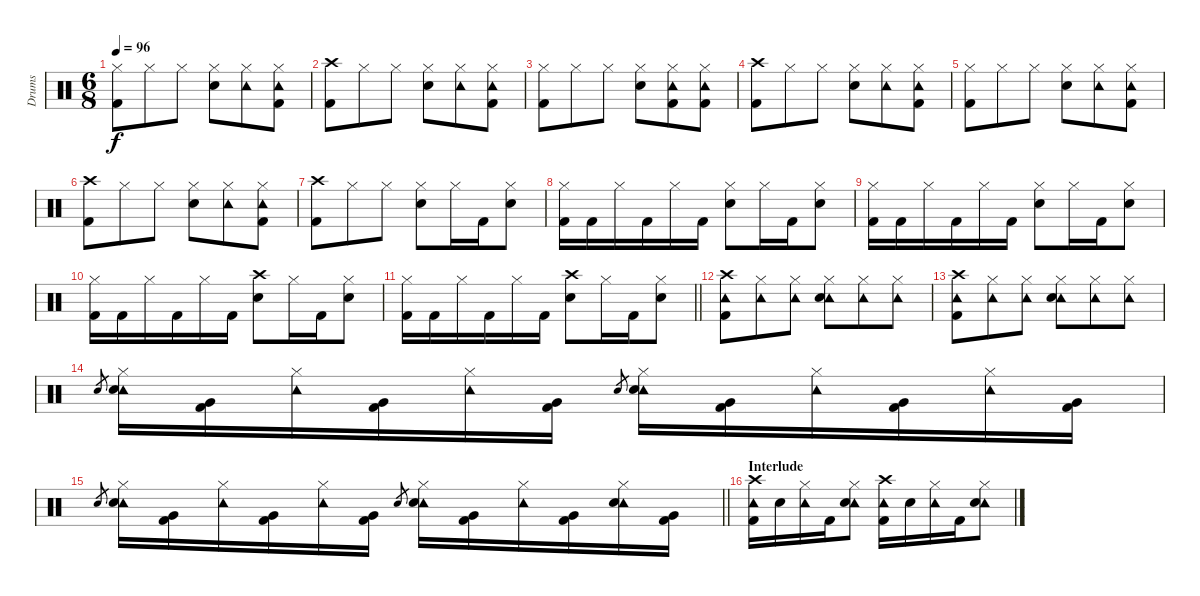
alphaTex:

\track ("Drums" "Drums") {instrument percussion}
\staff {score}
\articulation defaults
\ts (6 8)
\tempo 96
\clef neutral
\ks c
("Hi-Hat (closed)" "Kick (hit) 2").8{dy f} "Hi-Hat (closed)".8 "Hi-Hat (closed)".8 ("Hi-Hat (closed)" "Snare (hit) 2").8 ("Hi-Hat (closed)" "Tambourine (hit)").8 ("Hi-Hat (closed)" "Tambourine (hit)" "Kick (hit) 2").8 |
("Crash high (hit)" "Kick (hit) 2").8 "Hi-Hat (closed)".8 "Hi-Hat (closed)".8 ("Hi-Hat (closed)" "Snare (hit) 2").8 ("Hi-Hat (closed)" "Tambourine (hit)").8 ("Hi-Hat (closed)" "Tambourine (hit)" "Kick (hit) 2").8 |
("Hi-Hat (closed)" "Kick (hit) 2").8 "Hi-Hat (closed)".8 "Hi-Hat (closed)".8 ("Hi-Hat (closed)" "Snare (hit) 2").8 ("Hi-Hat (closed)" "Tambourine (hit)" "Kick (hit) 2").8 ("Hi-Hat (closed)" "Tambourine (hit)" "Kick (hit) 2").8 |
("Crash high (hit)" "Kick (hit) 2").8 "Hi-Hat (closed)".8 "Hi-Hat (closed)".8 ("Hi-Hat (closed)" "Snare (hit) 2").8 ("Hi-Hat (closed)" "Tambourine (hit)").8 ("Hi-Hat (closed)" "Tambourine (hit)" "Kick (hit) 2").8 |
("Hi-Hat (closed)" "Kick (hit) 2").8 "Hi-Hat (closed)".8 "Hi-Hat (closed)".8 ("Hi-Hat (closed)" "Snare (hit) 2").8 ("Hi-Hat (closed)" "Tambourine (hit)").8 ("Hi-Hat (closed)" "Tambourine (hit)" "Kick (hit) 2").8 |
("Crash high (hit)" "Kick (hit) 2").8 "Hi-Hat (closed)".8 "Hi-Hat (closed)".8 ("Hi-Hat (closed)" "Snare (hit) 2").8 ("Hi-Hat (closed)" "Tambourine (hit)").8 ("Hi-Hat (closed)" "Tambourine (hit)" "Kick (hit) 2").8 |
("Crash high (hit)" "Kick (hit) 2").8 "Hi-Hat (closed)".8 "Hi-Hat (closed)".8 ("Hi-Hat (closed)" "Snare (hit) 2").8 "Hi-Hat (closed)".16 "Kick (hit) 2".16 ("Hi-Hat (closed)" "Snare (hit) 2").8 |
("Hi-Hat (closed)" "Kick (hit) 2").16 "Kick (hit) 2".16 "Hi-Hat (closed)".16 "Kick (hit) 2".16 "Hi-Hat (closed)".16 "Kick (hit) 2".16 ("Hi-Hat (closed)" "Snare (hit) 2").8 "Hi-Hat (closed)".16 "Kick (hit) 2".16 ("Hi-Hat (closed)" "Snare (hit) 2").8 |
("Hi-Hat (closed)" "Kick (hit) 2").16 "Kick (hit) 2".16 "Hi-Hat (closed)".16 "Kick (hit) 2".16 "Hi-Hat (closed)".16 "Kick (hit) 2".16 ("Hi-Hat (closed)" "Snare (hit) 2").8 "Hi-Hat (closed)".16 "Kick (hit) 2".16 ("Hi-Hat (closed)" "Snare (hit) 2").8 |
("Hi-Hat (closed)" "Kick (hit) 2").16 "Kick (hit) 2".16 "Hi-Hat (closed)".16 "Kick (hit) 2".16 "Hi-Hat (closed)".16 "Kick (hit) 2".16 ("Crash high (hit)" "Snare (hit) 2").8 "Hi-Hat (closed)".16 "Kick (hit) 2".16 ("Hi-Hat (closed)" "Snare (hit) 2").8 |
\barLineRight lightlight
("Hi-Hat (closed)" "Kick (hit) 2").16 "Kick (hit) 2".16 "Hi-Hat (closed)".16 "Kick (hit) 2".16 "Hi-Hat (closed)".16 "Kick (hit) 2".16 ("Crash high (hit)" "Snare (hit) 2").8 "Hi-Hat (closed)".16 "Kick (hit) 2".16 ("Hi-Hat (closed)" "Snare (hit) 2").8 |
("Crash high (hit)" "Tambourine (hit)" "Kick (hit) 2").8 ("Hi-Hat (closed)" "Tambourine (hit)").8 ("Hi-Hat (closed)" "Tambourine (hit)").8 ("Hi-Hat (closed)" "Tambourine (hit)" "Snare (hit) 2").8 ("Hi-Hat (closed)" "Tambourine (hit)").8 ("Hi-Hat (closed)" "Tambourine (hit)").8 |
("Crash high (hit)" "Tambourine (hit)" "Kick (hit) 2").8 ("Hi-Hat (closed)" "Tambourine (hit)").8 ("Hi-Hat (closed)" "Tambourine (hit)").8 ("Hi-Hat (closed)" "Tambourine (hit)" "Snare (hit) 2").8 ("Hi-Hat (closed)" "Tambourine (hit)").8 ("Hi-Hat (closed)" "Tambourine (hit)").8 |
"Snare (hit) 2".8{gr} ("Hi-Hat (closed)" "Tambourine (hit)" "Snare (hit) 2").16 ("Very Low Tom (hit)" "Kick (hit) 2").16 ("Hi-Hat (closed)" "Tambourine (hit)").16 ("Very Low Tom (hit)" "Kick (hit) 2").16 ("Hi-Hat (closed)" "Tambourine (hit)").16 ("Very Low Tom (hit)" "Kick (hit) 2").16 "Snare (hit) 2".8{gr} ("Hi-Hat (closed)" "Tambourine (hit)" "Snare (hit) 2").16 ("Very Low Tom (hit)" "Kick (hit) 2").16 ("Hi-Hat (closed)" "Tambourine (hit)").16 ("Very Low Tom (hit)" "Kick (hit) 2").16 ("Hi-Hat (closed)" "Tambourine (hit)").16 ("Very Low Tom (hit)" "Kick (hit) 2").16 |
\barLineRight lightlight "Snare (hit) 2".8{gr}
("Hi-Hat (closed)" "Tambourine (hit)" "Snare (hit) 2").16 ("Very Low Tom (hit)" "Kick (hit) 2").16 ("Hi-Hat (closed)" "Tambourine (hit)").16 ("Very Low Tom (hit)" "Kick (hit) 2").16 ("Hi-Hat (closed)" "Tambourine (hit)").16 ("Very Low Tom (hit)" "Kick (hit) 2").16 "Snare (hit) 2".8{gr} ("Hi-Hat (closed)" "Tambourine (hit)" "Snare (hit) 2").16 ("Very Low Tom (hit)" "Kick (hit) 2").16 ("Hi-Hat (closed)" "Tambourine (hit)").16 ("Very Low Tom (hit)" "Kick (hit) 2").16 ("Hi-Hat (closed)" "Tambourine (hit)" "Snare (hit) 2").16 ("Very Low Tom (hit)" "Kick (hit) 2").16 |
\section ("" "Interlude")
("Crash high (hit)" "Tambourine (hit)" "Kick (hit) 2").16 "Snare (hit) 2".16 ("Hi-Hat (closed)" "Tambourine (hit)").16 "Kick (hit) 2".16 ("Hi-Hat (closed)" "Tambourine (hit)" "Snare (hit) 2").8 ("Crash high (hit)" "Tambourine (hit)" "Kick (hit) 2").16 "Snare (hit) 2".16 ("Hi-Hat (closed)" "Tambourine (hit)").16 "Kick (hit) 2".16 ("Hi-Hat (closed)" "Tambourine (hit)" "Snare (hit) 2").8
